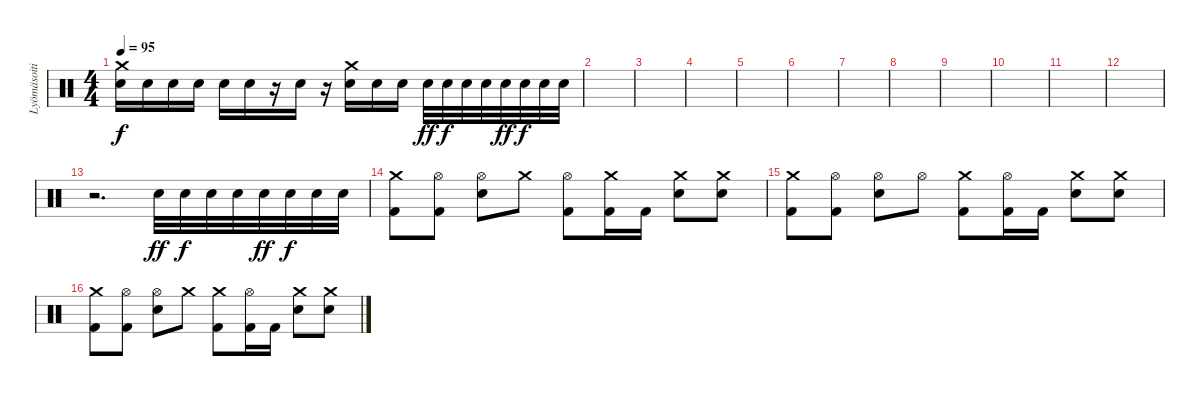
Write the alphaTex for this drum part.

\track ("Lyömäsoitin" "Lyömäsoiti") {instrument percussion}
\staff {score}
\articulation defaults
\ts (4 4)
\tempo 95
\clef neutral
\ks c
("Crash medium (hit)" "Electric Snare (hit)").16{dy f} "Electric Snare (hit)".16 "Electric Snare (hit)".16 "Electric Snare (hit)".16 "Electric Snare (hit)".16 "Electric Snare (hit)".16 r.16 "Electric Snare (hit)".16 r.16 ("Crash medium (hit)" "Electric Snare (hit)").16 "Electric Snare (hit)".16 "Electric Snare (hit)".16 "Electric Snare (hit)".32{dy ff} "Electric Snare (hit)".32{dy f} "Electric Snare (hit)".32 "Electric Snare (hit)".32 "Electric Snare (hit)".32{dy ff} "Electric Snare (hit)".32{dy f} "Electric Snare (hit)".32 "Electric Snare (hit)".32 |
|
|
|
|
|
|
|
|
|
|
|
r.2{d} "Electric Snare (hit)".32{dy ff} "Electric Snare (hit)".32{dy f} "Electric Snare (hit)".32 "Electric Snare (hit)".32 "Electric Snare (hit)".32{dy ff} "Electric Snare (hit)".32{dy f} "Electric Snare (hit)".32 "Electric Snare (hit)".32 |
("Crash medium (hit)" "Kick (hit) 2").8 ("Hi-Hat (open)" "Kick (hit) 2").8 ("Hi-Hat (open)" "Electric Snare (hit)").8 "Crash medium (hit)".8 ("Hi-Hat (open)" "Kick (hit) 2").8 ("Crash medium (hit)" "Kick (hit) 2").16 "Kick (hit) 2".16 ("Crash medium (hit)" "Electric Snare (hit)").8 ("Crash medium (hit)" "Electric Snare (hit)").8 |
("Crash medium (hit)" "Kick (hit) 2").8 ("Hi-Hat (open)" "Kick (hit) 2").8 ("Hi-Hat (open)" "Electric Snare (hit)").8 "Hi-Hat (open)".8 ("Crash medium (hit)" "Kick (hit) 2").8 ("Hi-Hat (open)" "Kick (hit) 2").16 "Kick (hit) 2".16 ("Crash medium (hit)" "Electric Snare (hit)").8 ("Crash medium (hit)" "Electric Snare (hit)").8 |
("Crash medium (hit)" "Kick (hit) 2").8 ("Hi-Hat (open)" "Kick (hit) 2").8 ("Hi-Hat (open)" "Electric Snare (hit)").8 "Crash medium (hit)".8 ("Crash medium (hit)" "Kick (hit) 2").8 ("Hi-Hat (open)" "Kick (hit) 2").16 "Kick (hit) 2".16 ("Crash medium (hit)" "Electric Snare (hit)").8 ("Crash medium (hit)" "Electric Snare (hit)").8
